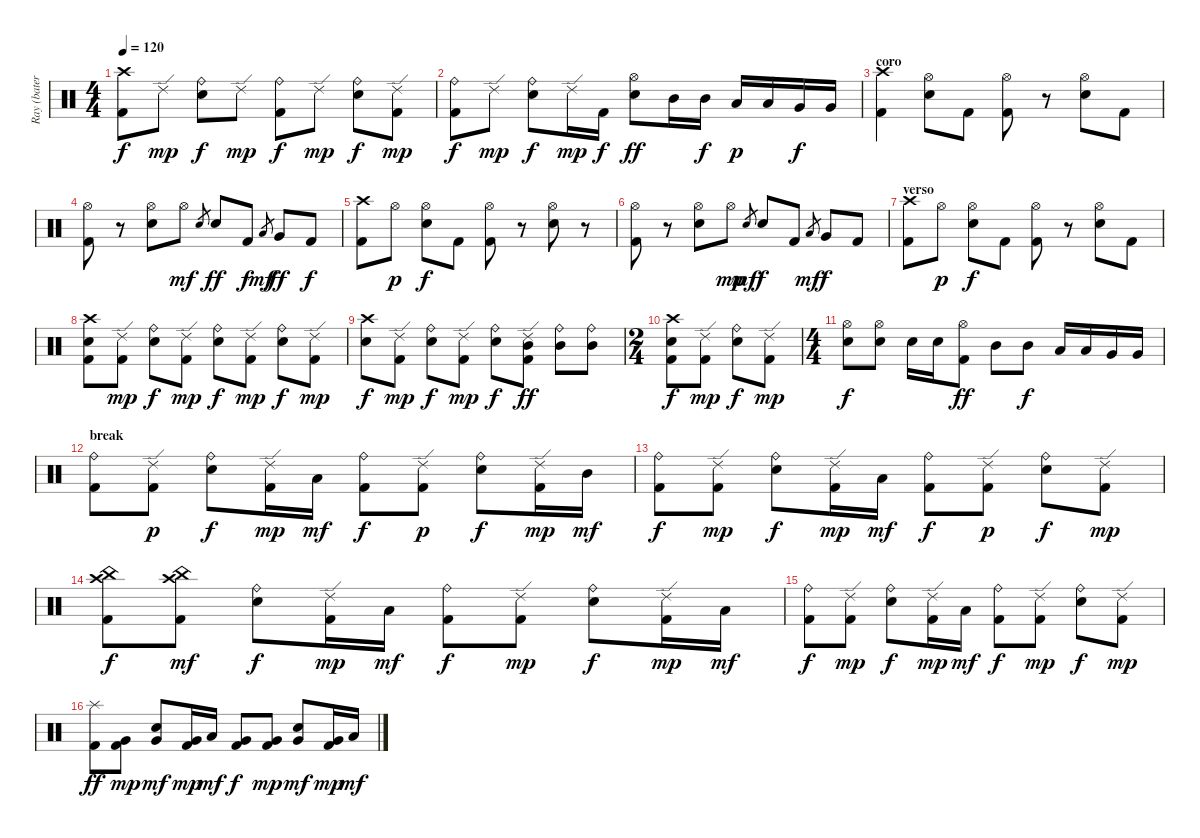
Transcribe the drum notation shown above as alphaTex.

\track ("Ray (batería)" "Ray (bater") {instrument percussion}
\staff {score}
\articulation defaults
\ts (4 4)
\tempo 120
\clef neutral
\ks c
("Crash high (hit)" "Kick (hit) 2").8{dy f} "Ride (edge) 2".8{dy mp} ("Ride (bell)" "Snare (hit) 2").8{dy f} "Ride (edge) 2".8{dy mp} ("Ride (bell)" "Kick (hit) 2").8{dy f} "Ride (edge) 2".8{dy mp} ("Ride (bell)" "Snare (hit) 2").8{dy f} ("Ride (edge) 2" "Kick (hit) 2").8{dy mp} |
("Ride (bell)" "Kick (hit) 2").8{dy f} "Ride (edge) 2".8{dy mp} ("Ride (bell)" "Snare (hit) 2").8{dy f} "Ride (edge) 2".16{dy mp} "Kick (hit) 2".16{dy f} ("Hi-Hat (open)" "Snare (hit) 2").8{dy ff} "Mid Tom (hit)".16 "Mid Tom (hit)".16{dy f} "Low Tom (hit)".16{dy p} "Low Tom (hit)".16 "Very Low Tom (hit)".16{dy f} "Very Low Tom (hit)".16 |
\section ("" "coro")
("Crash high (hit)" "Kick (hit) 2").4 ("Hi-Hat (open)" "Snare (hit) 2").8 "Kick (hit) 2".8 ("Hi-Hat (open)" "Kick (hit) 2").8 r.8 ("Hi-Hat (open)" "Snare (hit) 2").8 "Kick (hit) 2".8 |
("Hi-Hat (open)" "Kick (hit) 2").8 r.8 ("Hi-Hat (open)" "Snare (hit) 2").8 "Hi-Hat (open)".8{dy mf} "Snare (hit) 2".8{gr} "Snare (hit) 2".8{dy ff} "Kick (hit) 2".8{dy f} "Low Floor Tom (hit)".8{gr dy mf} "Very Low Tom (hit)".8{dy ff} "Kick (hit) 2".8{dy f} |
("Crash high (hit)" "Kick (hit) 2").8 "Hi-Hat (open)".8{dy p} ("Hi-Hat (open)" "Snare (hit) 2").8{dy f} "Kick (hit) 2".8 ("Hi-Hat (open)" "Kick (hit) 2").8 r.8 ("Hi-Hat (open)" "Snare (hit) 2").8 r.8 |
("Hi-Hat (open)" "Kick (hit) 2").8 r.8 ("Hi-Hat (open)" "Snare (hit) 2").8 "Hi-Hat (open)".8{dy mp} "Snare (hit) 2".8{gr dy mf} "Snare (hit) 2".8{dy f} "Kick (hit) 2".8 "Low Floor Tom (hit)".8{gr dy mf} "Very Low Tom (hit)".8{dy f} "Kick (hit) 2".8 |
\section ("" "verso")
("Crash high (hit)" "Kick (hit) 2").8 "Hi-Hat (open)".8{dy p} ("Hi-Hat (open)" "Snare (hit) 2").8{dy f} "Kick (hit) 2".8 ("Hi-Hat (open)" "Kick (hit) 2").8 r.8 ("Hi-Hat (open)" "Snare (hit) 2").8 "Kick (hit) 2".8 |
("Crash high (hit)" "Snare (hit) 2" "Kick (hit) 2").8 ("Ride (edge) 2" "Kick (hit) 2").8{dy mp} ("Ride (bell)" "Snare (hit) 2").8{dy f} ("Ride (edge) 2" "Kick (hit) 2").8{dy mp} ("Ride (bell)" "Snare (hit) 2").8{dy f} ("Ride (edge) 2" "Kick (hit) 2").8{dy mp} ("Ride (bell)" "Snare (hit) 2").8{dy f} ("Ride (edge) 2" "Kick (hit) 2").8{dy mp} |
("Crash high (hit)" "Snare (hit) 2").8{dy f} ("Ride (edge) 2" "Kick (hit) 2").8{dy mp} ("Ride (bell)" "Snare (hit) 2").8{dy f} ("Ride (edge) 2" "Kick (hit) 2").8{dy mp} ("Ride (bell)" "Snare (hit) 2").8{dy f} ("Ride (edge) 2" "Mid Tom (hit)" "Kick (hit) 2").8{dy ff} ("Ride (bell)" "Mid Tom (hit)").8 ("Ride (bell)" "Mid Tom (hit)").8 |
\ts (2 4)
("Crash high (hit)" "Snare (hit) 2" "Kick (hit) 2").8{dy f} ("Ride (edge) 2" "Kick (hit) 2").8{dy mp} ("Ride (bell)" "Snare (hit) 2").8{dy f} ("Ride (edge) 2" "Kick (hit) 2").8{dy mp} |
\ts (4 4)
("Hi-Hat (open)" "Snare (hit) 2").8{dy f} ("Hi-Hat (open)" "Snare (hit) 2").8 "Snare (hit) 2".16 "Snare (hit) 2".16 ("Hi-Hat (open)" "Kick (hit) 2").8{dy ff} "Mid Tom (hit)".8 "Mid Tom (hit)".8{dy f} "Low Tom (hit)".16 "Low Tom (hit)".16 "Very Low Tom (hit)".16 "Very Low Tom (hit)".16 |
\section ("" "break")
("Ride (bell)" "Kick (hit) 2").8 ("Ride (edge) 2" "Kick (hit) 2").8{dy p} ("Ride (bell)" "Snare (hit) 2").8{dy f} ("Ride (edge) 2" "Kick (hit) 2").16{dy mp} "Low Tom (hit)".16{dy mf} ("Ride (bell)" "Kick (hit) 2").8{dy f} ("Ride (edge) 2" "Kick (hit) 2").8{dy p} ("Ride (bell)" "Snare (hit) 2").8{dy f} ("Ride (edge) 2" "Kick (hit) 2").16{dy mp} "Mid Tom (hit)".16{dy mf} |
("Ride (bell)" "Kick (hit) 2").8{dy f} ("Ride (edge) 2" "Kick (hit) 2").8{dy mp} ("Ride (bell)" "Snare (hit) 2").8{dy f} ("Ride (edge) 2" "Kick (hit) 2").16{dy mp} "Low Tom (hit)".16{dy mf} ("Ride (bell)" "Kick (hit) 2").8{dy f} ("Ride (edge) 2" "Kick (hit) 2").8{dy p} ("Ride (bell)" "Snare (hit) 2").8{dy f} ("Ride (edge) 2" "Kick (hit) 2").8{dy mp} |
("Crash high (hit)" "China (hit)" "Kick (hit) 2").8{dy f} ("Crash high (hit)" "China (hit)" "Kick (hit) 2").8{dy mf} ("Ride (bell)" "Snare (hit) 2").8{dy f} ("Ride (edge) 2" "Kick (hit) 2").16{dy mp} "Low Tom (hit)".16{dy mf} ("Ride (bell)" "Kick (hit) 2").8{dy f} ("Ride (edge) 2" "Kick (hit) 2").8{dy mp} ("Ride (bell)" "Snare (hit) 2").8{dy f} ("Ride (edge) 2" "Kick (hit) 2").16{dy mp} "Low Tom (hit)".16{dy mf} |
("Ride (bell)" "Kick (hit) 2").8{dy f} ("Ride (edge) 2" "Kick (hit) 2").8{dy mp} ("Ride (bell)" "Snare (hit) 2").8{dy f} ("Ride (edge) 2" "Kick (hit) 2").16{dy mp} "Low Tom (hit)".16{dy mf} ("Ride (bell)" "Kick (hit) 2").8{dy f} ("Ride (edge) 2" "Kick (hit) 2").8{dy mp} ("Ride (bell)" "Snare (hit) 2").8{dy f} ("Ride (edge) 2" "Kick (hit) 2").8{dy mp} |
\section ("" "")
("Splash (hit)" "Kick (hit) 2").8{dy ff} ("Very Low Tom (hit)" "Kick (hit) 2").8{dy mp} ("Snare (hit) 2" "Very Low Tom (hit)").8{dy mf} ("Very Low Tom (hit)" "Kick (hit) 2").16{dy mp} "Low Tom (hit)".16{dy mf} ("Very Low Tom (hit)" "Kick (hit) 2").8{dy f} ("Very Low Tom (hit)" "Kick (hit) 2").8{dy mp} ("Snare (hit) 2" "Very Low Tom (hit)").8{dy mf} ("Very Low Tom (hit)" "Kick (hit) 2").16{dy mp} "Low Tom (hit)".16{dy mf}
